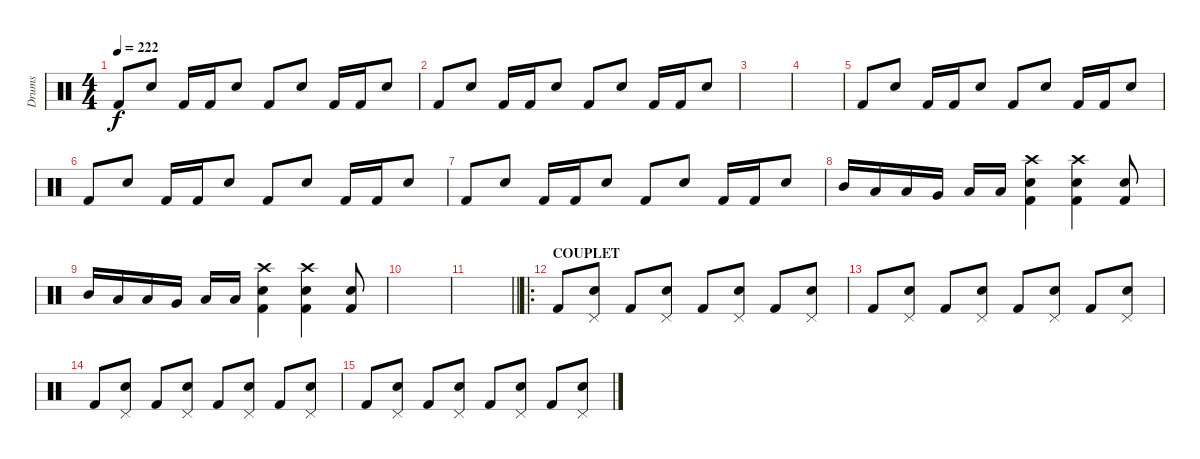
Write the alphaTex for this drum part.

\track ("Drums" "Drums") {instrument percussion}
\staff {score}
\articulation defaults
\ts (4 4)
\tempo 222
\clef neutral
\ks c "Kick (hit) 2".8{dy f} "Snare (hit) 2".8 "Kick (hit) 2".16 "Kick (hit) 2".16 "Snare (hit) 2".8 "Kick (hit) 2".8 "Snare (hit) 2".8 "Kick (hit) 2".16 "Kick (hit) 2".16 "Snare (hit) 2".8
|
"Kick (hit) 2".8 "Snare (hit) 2".8 "Kick (hit) 2".16 "Kick (hit) 2".16 "Snare (hit) 2".8 "Kick (hit) 2".8 "Snare (hit) 2".8 "Kick (hit) 2".16 "Kick (hit) 2".16 "Snare (hit) 2".8 |
|
|
"Kick (hit) 2".8 "Snare (hit) 2".8 "Kick (hit) 2".16 "Kick (hit) 2".16 "Snare (hit) 2".8 "Kick (hit) 2".8 "Snare (hit) 2".8 "Kick (hit) 2".16 "Kick (hit) 2".16 "Snare (hit) 2".8 |
"Kick (hit) 2".8 "Snare (hit) 2".8 "Kick (hit) 2".16 "Kick (hit) 2".16 "Snare (hit) 2".8 "Kick (hit) 2".8 "Snare (hit) 2".8 "Kick (hit) 2".16 "Kick (hit) 2".16 "Snare (hit) 2".8 |
"Kick (hit) 2".8 "Snare (hit) 2".8 "Kick (hit) 2".16 "Kick (hit) 2".16 "Snare (hit) 2".8 "Kick (hit) 2".8 "Snare (hit) 2".8 "Kick (hit) 2".16 "Kick (hit) 2".16 "Snare (hit) 2".8 |
"Mid Tom (hit)".16 "Low Tom (hit)".16 "Low Tom (hit)".16 "Very Low Tom (hit)".16 "Low Floor Tom (hit)".16 "Low Floor Tom (hit)".16 ("Crash high (hit)" "Snare (hit) 2" "Kick (hit) 2").4 ("Crash high (hit)" "Snare (hit) 2" "Kick (hit) 2").4 ("Snare (hit) 2" "Kick (hit) 2").8 |
"Mid Tom (hit)".16 "Low Tom (hit)".16 "Low Tom (hit)".16 "Very Low Tom (hit)".16 "Low Floor Tom (hit)".16 "Low Floor Tom (hit)".16 ("Crash high (hit)" "Snare (hit) 2" "Kick (hit) 2").4 ("Crash high (hit)" "Snare (hit) 2" "Kick (hit) 2").4 ("Snare (hit) 2" "Kick (hit) 2").8 |
|
\barLineRight lightlight
|
\ro
\section ("" "COUPLET")
"Kick (hit) 2".8 ("Pedal Hi-Hat (hit)" "Snare (hit) 2").8 "Kick (hit) 2".8 ("Pedal Hi-Hat (hit)" "Snare (hit) 2").8 "Kick (hit) 2".8 ("Pedal Hi-Hat (hit)" "Snare (hit) 2").8 "Kick (hit) 2".8 ("Pedal Hi-Hat (hit)" "Snare (hit) 2").8 |
"Kick (hit) 2".8 ("Pedal Hi-Hat (hit)" "Snare (hit) 2").8 "Kick (hit) 2".8 ("Pedal Hi-Hat (hit)" "Snare (hit) 2").8 "Kick (hit) 2".8 ("Pedal Hi-Hat (hit)" "Snare (hit) 2").8 "Kick (hit) 2".8 ("Pedal Hi-Hat (hit)" "Snare (hit) 2").8 |
"Kick (hit) 2".8 ("Pedal Hi-Hat (hit)" "Snare (hit) 2").8 "Kick (hit) 2".8 ("Pedal Hi-Hat (hit)" "Snare (hit) 2").8 "Kick (hit) 2".8 ("Pedal Hi-Hat (hit)" "Snare (hit) 2").8 "Kick (hit) 2".8 ("Pedal Hi-Hat (hit)" "Snare (hit) 2").8 |
"Kick (hit) 2".8 ("Pedal Hi-Hat (hit)" "Snare (hit) 2").8 "Kick (hit) 2".8 ("Pedal Hi-Hat (hit)" "Snare (hit) 2").8 "Kick (hit) 2".8 ("Pedal Hi-Hat (hit)" "Snare (hit) 2").8 "Kick (hit) 2".8 ("Pedal Hi-Hat (hit)" "Snare (hit) 2").8
